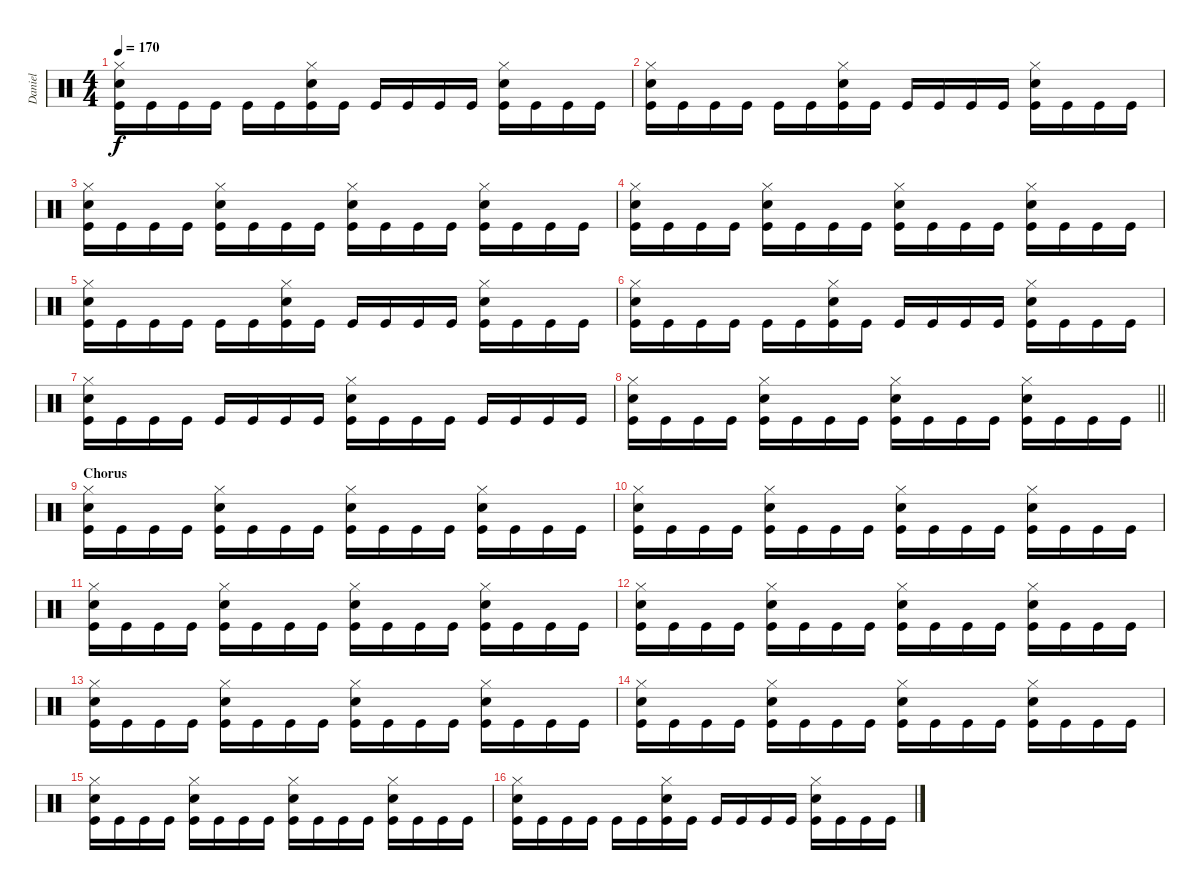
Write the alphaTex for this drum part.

\track ("Daniel" "Daniel") {instrument percussion}
\staff {score}
\articulation defaults
\ts (4 4)
\tempo 170
\clef neutral
\ks c
("Kick (hit)" "Snare (hit) 2" "Hi-Hat (closed)").16{dy f} "Kick (hit)".16 "Kick (hit)".16 "Kick (hit)".16 "Kick (hit)".16 "Kick (hit)".16 ("Kick (hit)" "Snare (hit) 2" "Hi-Hat (closed)").16 "Kick (hit)".16 "Kick (hit)".16 "Kick (hit)".16 "Kick (hit)".16 "Kick (hit)".16 ("Kick (hit)" "Snare (hit) 2" "Hi-Hat (closed)").16 "Kick (hit)".16 "Kick (hit)".16 "Kick (hit)".16 |
("Kick (hit)" "Snare (hit) 2" "Hi-Hat (closed)").16 "Kick (hit)".16 "Kick (hit)".16 "Kick (hit)".16 "Kick (hit)".16 "Kick (hit)".16 ("Kick (hit)" "Snare (hit) 2" "Hi-Hat (closed)").16 "Kick (hit)".16 "Kick (hit)".16 "Kick (hit)".16 "Kick (hit)".16 "Kick (hit)".16 ("Kick (hit)" "Snare (hit) 2" "Hi-Hat (closed)").16 "Kick (hit)".16 "Kick (hit)".16 "Kick (hit)".16 |
("Kick (hit)" "Snare (hit) 2" "Hi-Hat (closed)").16 "Kick (hit)".16 "Kick (hit)".16 "Kick (hit)".16 ("Kick (hit)" "Snare (hit) 2" "Hi-Hat (closed)").16 "Kick (hit)".16 "Kick (hit)".16 "Kick (hit)".16 ("Kick (hit)" "Snare (hit) 2" "Hi-Hat (closed)").16 "Kick (hit)".16 "Kick (hit)".16 "Kick (hit)".16 ("Kick (hit)" "Snare (hit) 2" "Hi-Hat (closed)").16 "Kick (hit)".16 "Kick (hit)".16 "Kick (hit)".16 |
("Kick (hit)" "Snare (hit) 2" "Hi-Hat (closed)").16 "Kick (hit)".16 "Kick (hit)".16 "Kick (hit)".16 ("Kick (hit)" "Snare (hit) 2" "Hi-Hat (closed)").16 "Kick (hit)".16 "Kick (hit)".16 "Kick (hit)".16 ("Kick (hit)" "Snare (hit) 2" "Hi-Hat (closed)").16 "Kick (hit)".16 "Kick (hit)".16 "Kick (hit)".16 ("Kick (hit)" "Snare (hit) 2" "Hi-Hat (closed)").16 "Kick (hit)".16 "Kick (hit)".16 "Kick (hit)".16 |
("Kick (hit)" "Snare (hit) 2" "Hi-Hat (closed)").16 "Kick (hit)".16 "Kick (hit)".16 "Kick (hit)".16 "Kick (hit)".16 "Kick (hit)".16 ("Kick (hit)" "Snare (hit) 2" "Hi-Hat (closed)").16 "Kick (hit)".16 "Kick (hit)".16 "Kick (hit)".16 "Kick (hit)".16 "Kick (hit)".16 ("Kick (hit)" "Snare (hit) 2" "Hi-Hat (closed)").16 "Kick (hit)".16 "Kick (hit)".16 "Kick (hit)".16 |
("Kick (hit)" "Snare (hit) 2" "Hi-Hat (closed)").16 "Kick (hit)".16 "Kick (hit)".16 "Kick (hit)".16 "Kick (hit)".16 "Kick (hit)".16 ("Kick (hit)" "Snare (hit) 2" "Hi-Hat (closed)").16 "Kick (hit)".16 "Kick (hit)".16 "Kick (hit)".16 "Kick (hit)".16 "Kick (hit)".16 ("Kick (hit)" "Snare (hit) 2" "Hi-Hat (closed)").16 "Kick (hit)".16 "Kick (hit)".16 "Kick (hit)".16 |
("Kick (hit)" "Snare (hit) 2" "Hi-Hat (closed)").16 "Kick (hit)".16 "Kick (hit)".16 "Kick (hit)".16 "Kick (hit)".16 "Kick (hit)".16 "Kick (hit)".16 "Kick (hit)".16 ("Kick (hit)" "Snare (hit) 2" "Hi-Hat (closed)").16 "Kick (hit)".16 "Kick (hit)".16 "Kick (hit)".16 "Kick (hit)".16 "Kick (hit)".16 "Kick (hit)".16 "Kick (hit)".16 |
\barLineRight lightlight
("Kick (hit)" "Snare (hit) 2" "Hi-Hat (closed)").16 "Kick (hit)".16 "Kick (hit)".16 "Kick (hit)".16 ("Kick (hit)" "Snare (hit) 2" "Hi-Hat (closed)").16 "Kick (hit)".16 "Kick (hit)".16 "Kick (hit)".16 ("Kick (hit)" "Snare (hit) 2" "Hi-Hat (closed)").16 "Kick (hit)".16 "Kick (hit)".16 "Kick (hit)".16 ("Kick (hit)" "Snare (hit) 2" "Hi-Hat (closed)").16 "Kick (hit)".16 "Kick (hit)".16 "Kick (hit)".16 |
\section ("" "Chorus")
("Kick (hit)" "Snare (hit) 2" "Hi-Hat (closed)").16 "Kick (hit)".16 "Kick (hit)".16 "Kick (hit)".16 ("Kick (hit)" "Snare (hit) 2" "Hi-Hat (closed)").16 "Kick (hit)".16 "Kick (hit)".16 "Kick (hit)".16 ("Kick (hit)" "Snare (hit) 2" "Hi-Hat (closed)").16 "Kick (hit)".16 "Kick (hit)".16 "Kick (hit)".16 ("Kick (hit)" "Snare (hit) 2" "Hi-Hat (closed)").16 "Kick (hit)".16 "Kick (hit)".16 "Kick (hit)".16 |
("Kick (hit)" "Snare (hit) 2" "Hi-Hat (closed)").16 "Kick (hit)".16 "Kick (hit)".16 "Kick (hit)".16 ("Kick (hit)" "Snare (hit) 2" "Hi-Hat (closed)").16 "Kick (hit)".16 "Kick (hit)".16 "Kick (hit)".16 ("Kick (hit)" "Snare (hit) 2" "Hi-Hat (closed)").16 "Kick (hit)".16 "Kick (hit)".16 "Kick (hit)".16 ("Kick (hit)" "Snare (hit) 2" "Hi-Hat (closed)").16 "Kick (hit)".16 "Kick (hit)".16 "Kick (hit)".16 |
("Kick (hit)" "Snare (hit) 2" "Hi-Hat (closed)").16 "Kick (hit)".16 "Kick (hit)".16 "Kick (hit)".16 ("Kick (hit)" "Snare (hit) 2" "Hi-Hat (closed)").16 "Kick (hit)".16 "Kick (hit)".16 "Kick (hit)".16 ("Kick (hit)" "Snare (hit) 2" "Hi-Hat (closed)").16 "Kick (hit)".16 "Kick (hit)".16 "Kick (hit)".16 ("Kick (hit)" "Snare (hit) 2" "Hi-Hat (closed)").16 "Kick (hit)".16 "Kick (hit)".16 "Kick (hit)".16 |
("Kick (hit)" "Snare (hit) 2" "Hi-Hat (closed)").16 "Kick (hit)".16 "Kick (hit)".16 "Kick (hit)".16 ("Kick (hit)" "Snare (hit) 2" "Hi-Hat (closed)").16 "Kick (hit)".16 "Kick (hit)".16 "Kick (hit)".16 ("Kick (hit)" "Snare (hit) 2" "Hi-Hat (closed)").16 "Kick (hit)".16 "Kick (hit)".16 "Kick (hit)".16 ("Kick (hit)" "Snare (hit) 2" "Hi-Hat (closed)").16 "Kick (hit)".16 "Kick (hit)".16 "Kick (hit)".16 |
("Kick (hit)" "Snare (hit) 2" "Hi-Hat (closed)").16 "Kick (hit)".16 "Kick (hit)".16 "Kick (hit)".16 ("Kick (hit)" "Snare (hit) 2" "Hi-Hat (closed)").16 "Kick (hit)".16 "Kick (hit)".16 "Kick (hit)".16 ("Kick (hit)" "Snare (hit) 2" "Hi-Hat (closed)").16 "Kick (hit)".16 "Kick (hit)".16 "Kick (hit)".16 ("Kick (hit)" "Snare (hit) 2" "Hi-Hat (closed)").16 "Kick (hit)".16 "Kick (hit)".16 "Kick (hit)".16 |
("Kick (hit)" "Snare (hit) 2" "Hi-Hat (closed)").16 "Kick (hit)".16 "Kick (hit)".16 "Kick (hit)".16 ("Kick (hit)" "Snare (hit) 2" "Hi-Hat (closed)").16 "Kick (hit)".16 "Kick (hit)".16 "Kick (hit)".16 ("Kick (hit)" "Snare (hit) 2" "Hi-Hat (closed)").16 "Kick (hit)".16 "Kick (hit)".16 "Kick (hit)".16 ("Kick (hit)" "Snare (hit) 2" "Hi-Hat (closed)").16 "Kick (hit)".16 "Kick (hit)".16 "Kick (hit)".16 |
("Kick (hit)" "Snare (hit) 2" "Hi-Hat (closed)").16 "Kick (hit)".16 "Kick (hit)".16 "Kick (hit)".16 ("Kick (hit)" "Snare (hit) 2" "Hi-Hat (closed)").16 "Kick (hit)".16 "Kick (hit)".16 "Kick (hit)".16 ("Kick (hit)" "Snare (hit) 2" "Hi-Hat (closed)").16 "Kick (hit)".16 "Kick (hit)".16 "Kick (hit)".16 ("Kick (hit)" "Snare (hit) 2" "Hi-Hat (closed)").16 "Kick (hit)".16 "Kick (hit)".16 "Kick (hit)".16 |
("Kick (hit)" "Snare (hit) 2" "Hi-Hat (closed)").16 "Kick (hit)".16 "Kick (hit)".16 "Kick (hit)".16 "Kick (hit)".16 "Kick (hit)".16 ("Kick (hit)" "Snare (hit) 2" "Hi-Hat (closed)").16 "Kick (hit)".16 "Kick (hit)".16 "Kick (hit)".16 "Kick (hit)".16 "Kick (hit)".16 ("Kick (hit)" "Snare (hit) 2" "Hi-Hat (closed)").16 "Kick (hit)".16 "Kick (hit)".16 "Kick (hit)".16
